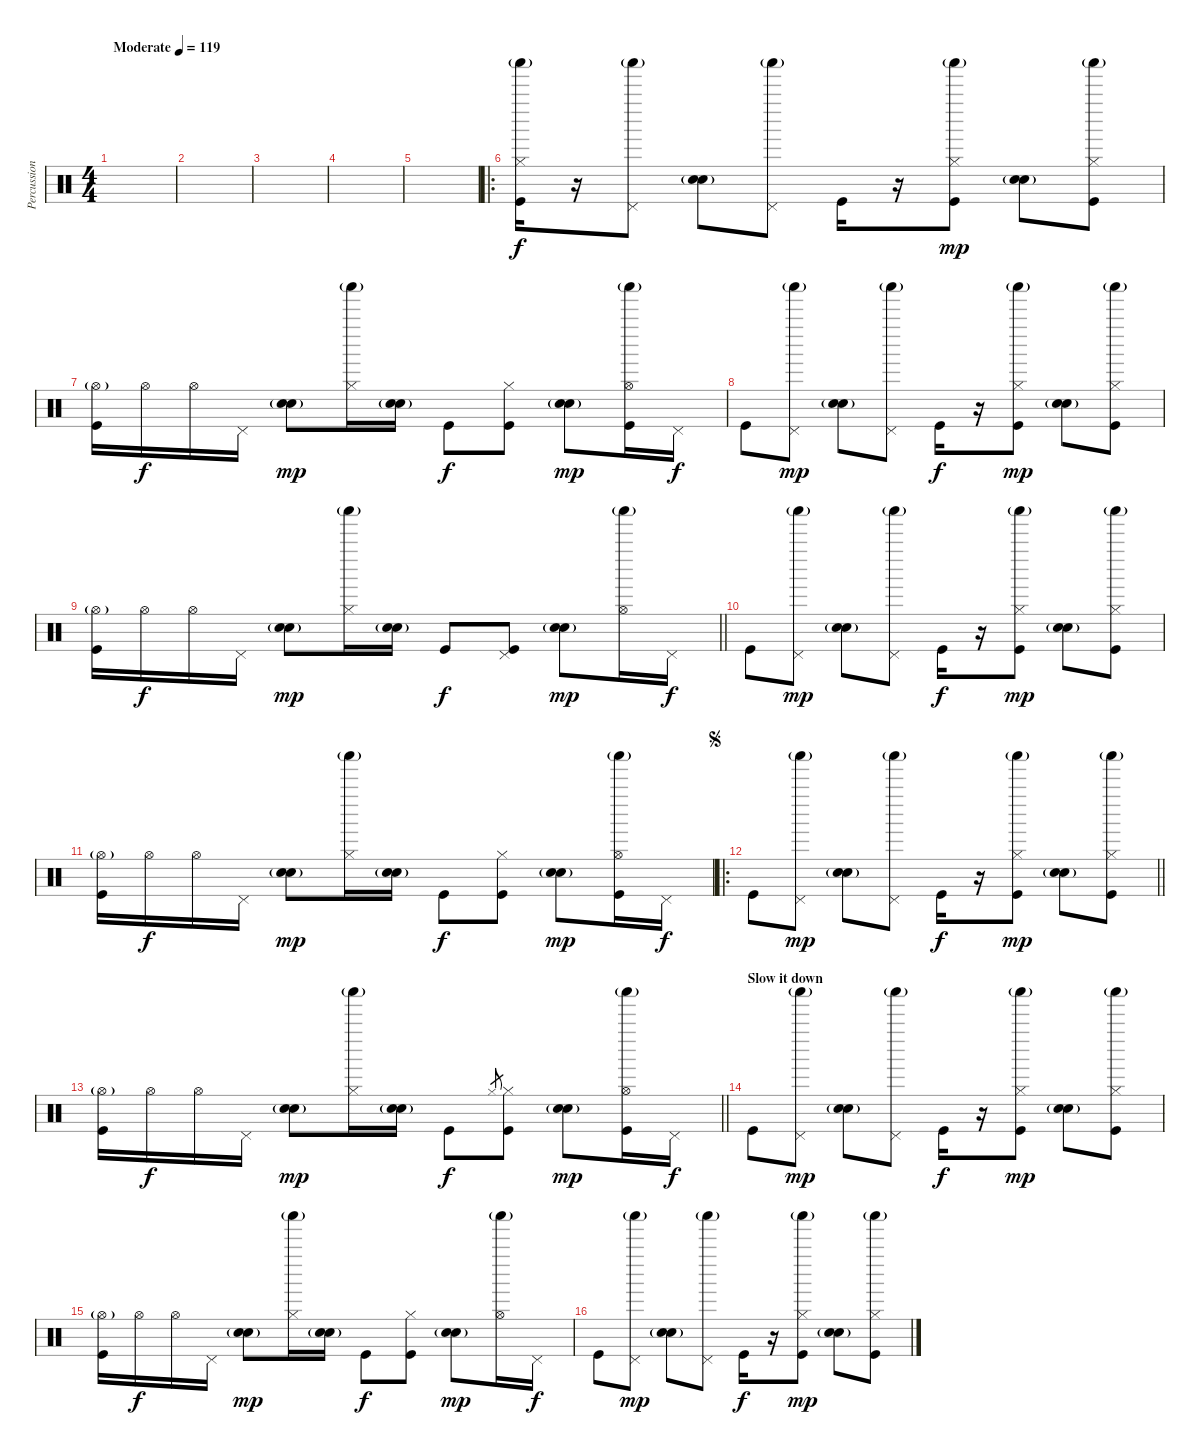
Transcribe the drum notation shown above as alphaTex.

\track ("Percussioni" "Percussion") {instrument percussion}
\staff {score}
\articulation defaults
\ts (4 4)
\tempo (119 "Moderate")
\clef neutral
\ks c
|
|
|
|
|
\ro
("Hi-Hat (closed)" "Shaker (hit)"{g} "Kick (hit)").16 r.16 ("Pedal Hi-Hat (hit)" "Shaker (hit)"{g}).8 ("Hand Clap (hit)"{g} "Electric Snare (hit)").8 ("Pedal Hi-Hat (hit)" "Shaker (hit)"{g}).8 "Kick (hit)".16{dy f} r.16 ("Hi-Hat (closed)" "Shaker (hit)"{g} "Kick (hit)").8{dy mp} ("Hand Clap (hit)"{g} "Electric Snare (hit)").8 ("Hi-Hat (closed)" "Shaker (hit)"{g} "Kick (hit)").8 |
("Hi-Hat (open)"{g} "Kick (hit)").16 "Hi-Hat (open)".16{dy f} "Hi-Hat (open)".16 "Pedal Hi-Hat (hit)".16 ("Hand Clap (hit)"{g} "Electric Snare (hit)").8{dy mp} ("Hi-Hat (closed)" "Shaker (hit)"{g}).16 ("Electric Snare (hit)" "Hand Clap (hit)"{g}).16 "Kick (hit)".8{dy f} ("Hi-Hat (closed)" "Kick (hit)").8 ("Hand Clap (hit)"{g} "Electric Snare (hit)").8{dy mp} ("Hi-Hat (open)" "Shaker (hit)"{g} "Kick (hit)").16 "Pedal Hi-Hat (hit)".16{dy f} |
"Kick (hit)".8 ("Pedal Hi-Hat (hit)" "Shaker (hit)"{g}).8{dy mp} ("Hand Clap (hit)"{g} "Electric Snare (hit)").8 ("Pedal Hi-Hat (hit)" "Shaker (hit)"{g}).8 "Kick (hit)".16{dy f} r.16 ("Hi-Hat (closed)" "Shaker (hit)"{g} "Kick (hit)").8{dy mp} ("Hand Clap (hit)"{g} "Electric Snare (hit)").8 ("Hi-Hat (closed)" "Shaker (hit)"{g} "Kick (hit)").8 |
\barLineRight lightlight
("Hi-Hat (open)"{g} "Kick (hit)").16 "Hi-Hat (open)".16{dy f} "Hi-Hat (open)".16 "Pedal Hi-Hat (hit)".16 ("Hand Clap (hit)"{g} "Electric Snare (hit)").8{dy mp} ("Hi-Hat (closed)" "Shaker (hit)"{g}).16 ("Electric Snare (hit)" "Hand Clap (hit)"{g}).16 "Kick (hit)".8{dy f} ("Pedal Hi-Hat (hit)" "Kick (hit)").8 ("Hand Clap (hit)"{g} "Electric Snare (hit)").8{dy mp} ("Hi-Hat (open)" "Shaker (hit)"{g}).16 "Pedal Hi-Hat (hit)".16{dy f} |
"Kick (hit)".8 ("Pedal Hi-Hat (hit)" "Shaker (hit)"{g}).8{dy mp} ("Hand Clap (hit)"{g} "Electric Snare (hit)").8 ("Pedal Hi-Hat (hit)" "Shaker (hit)"{g}).8 "Kick (hit)".16{dy f} r.16 ("Hi-Hat (closed)" "Shaker (hit)"{g} "Kick (hit)").8{dy mp} ("Hand Clap (hit)"{g} "Electric Snare (hit)").8 ("Hi-Hat (closed)" "Shaker (hit)"{g} "Kick (hit)").8 |
("Hi-Hat (open)"{g} "Kick (hit)").16 "Hi-Hat (open)".16{dy f} "Hi-Hat (open)".16 "Pedal Hi-Hat (hit)".16 ("Hand Clap (hit)"{g} "Electric Snare (hit)").8{dy mp} ("Hi-Hat (closed)" "Shaker (hit)"{g}).16 ("Electric Snare (hit)" "Hand Clap (hit)"{g}).16 "Kick (hit)".8{dy f} ("Hi-Hat (closed)" "Kick (hit)").8 ("Hand Clap (hit)"{g} "Electric Snare (hit)").8{dy mp} ("Hi-Hat (open)" "Shaker (hit)"{g} "Kick (hit)").16 "Pedal Hi-Hat (hit)".16{dy f} |
\ro
\jump segno
\barLineRight lightlight "Kick (hit)".8
("Pedal Hi-Hat (hit)" "Shaker (hit)"{g}).8{dy mp} ("Hand Clap (hit)"{g} "Electric Snare (hit)").8 ("Pedal Hi-Hat (hit)" "Shaker (hit)"{g}).8 "Kick (hit)".16{dy f} r.16 ("Hi-Hat (closed)" "Shaker (hit)"{g} "Kick (hit)").8{dy mp} ("Hand Clap (hit)"{g} "Electric Snare (hit)").8 ("Hi-Hat (closed)" "Shaker (hit)"{g} "Kick (hit)").8 |
\barLineRight lightlight
("Hi-Hat (open)"{g} "Kick (hit)").16 "Hi-Hat (open)".16{dy f} "Hi-Hat (open)".16 "Pedal Hi-Hat (hit)".16 ("Hand Clap (hit)"{g} "Electric Snare (hit)").8{dy mp} ("Hi-Hat (closed)" "Shaker (hit)"{g}).16 ("Electric Snare (hit)" "Hand Clap (hit)"{g}).16 "Kick (hit)".8{dy f} "Hi-Hat (closed)".8{gr} ("Hi-Hat (closed)" "Kick (hit)").8 ("Hand Clap (hit)"{g} "Electric Snare (hit)").8{dy mp} ("Hi-Hat (open)" "Shaker (hit)"{g} "Kick (hit)").16 "Pedal Hi-Hat (hit)".16{dy f} |
\section ("" "Slow it down")
"Kick (hit)".8 ("Pedal Hi-Hat (hit)" "Shaker (hit)"{g}).8{dy mp} ("Hand Clap (hit)"{g} "Electric Snare (hit)").8 ("Pedal Hi-Hat (hit)" "Shaker (hit)"{g}).8 "Kick (hit)".16{dy f} r.16 ("Hi-Hat (closed)" "Shaker (hit)"{g} "Kick (hit)").8{dy mp} ("Hand Clap (hit)"{g} "Electric Snare (hit)").8 ("Hi-Hat (closed)" "Shaker (hit)"{g} "Kick (hit)").8 |
("Hi-Hat (open)"{g} "Kick (hit)").16 "Hi-Hat (open)".16{dy f} "Hi-Hat (open)".16 "Pedal Hi-Hat (hit)".16 ("Hand Clap (hit)"{g} "Electric Snare (hit)").8{dy mp} ("Hi-Hat (closed)" "Shaker (hit)"{g}).16 ("Electric Snare (hit)" "Hand Clap (hit)"{g}).16 "Kick (hit)".8{dy f} ("Hi-Hat (closed)" "Kick (hit)").8 ("Hand Clap (hit)"{g} "Electric Snare (hit)").8{dy mp} ("Hi-Hat (open)" "Shaker (hit)"{g}).16 "Pedal Hi-Hat (hit)".16{dy f} |
"Kick (hit)".8 ("Pedal Hi-Hat (hit)" "Shaker (hit)"{g}).8{dy mp} ("Hand Clap (hit)"{g} "Electric Snare (hit)").8 ("Pedal Hi-Hat (hit)" "Shaker (hit)"{g}).8 "Kick (hit)".16{dy f} r.16 ("Hi-Hat (closed)" "Shaker (hit)"{g} "Kick (hit)").8{dy mp} ("Hand Clap (hit)"{g} "Electric Snare (hit)").8 ("Hi-Hat (closed)" "Shaker (hit)"{g} "Kick (hit)").8
